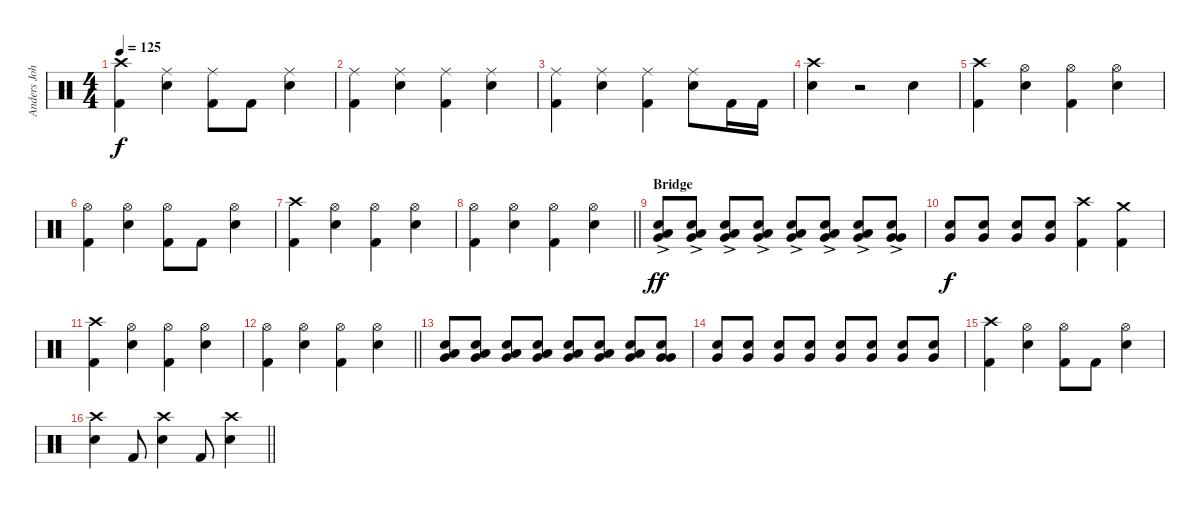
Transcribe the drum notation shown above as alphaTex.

\track ("Anders Johansson" "Anders Joh") {instrument percussion}
\staff {score}
\articulation defaults
\ts (4 4)
\tempo 125
\clef neutral
\ks c
("Kick (hit) 2" "Crash high (hit)").4{dy f} ("Electric Snare (hit)" "Ride (middle)").4 ("Kick (hit) 2" "Ride (middle)").8 "Kick (hit) 2".8 ("Electric Snare (hit)" "Ride (middle)").4 |
("Kick (hit) 2" "Ride (middle)").4 ("Electric Snare (hit)" "Ride (middle)").4 ("Kick (hit) 2" "Ride (middle)").4 ("Electric Snare (hit)" "Ride (middle)").4 |
("Kick (hit) 2" "Ride (middle)").4 ("Electric Snare (hit)" "Ride (middle)").4 ("Kick (hit) 2" "Ride (middle)").4 ("Electric Snare (hit)" "Ride (middle)").8 "Kick (hit) 2".16 "Kick (hit) 2".16 |
("Crash high (hit)" "Electric Snare (hit)").4 r.2 "Electric Snare (hit)".4 |
("Kick (hit) 2" "Crash high (hit)").4 ("Electric Snare (hit)" "Hi-Hat (open)").4 ("Kick (hit) 2" "Hi-Hat (open)").4 ("Electric Snare (hit)" "Hi-Hat (open)").4 |
("Kick (hit) 2" "Hi-Hat (open)").4 ("Electric Snare (hit)" "Hi-Hat (open)").4 ("Kick (hit) 2" "Hi-Hat (open)").8 "Kick (hit) 2".8 ("Hi-Hat (open)" "Electric Snare (hit)").4 |
("Kick (hit) 2" "Crash high (hit)").4 ("Electric Snare (hit)" "Hi-Hat (open)").4 ("Kick (hit) 2" "Hi-Hat (open)").4 ("Electric Snare (hit)" "Hi-Hat (open)").4 |
\barLineRight lightlight
("Kick (hit) 2" "Hi-Hat (open)").4 ("Electric Snare (hit)" "Hi-Hat (open)").4 ("Kick (hit) 2" "Hi-Hat (open)").4 ("Electric Snare (hit)" "Hi-Hat (open)").4 |
\section ("" "Bridge")
("Very Low Tom (hit)" "Snare (hit) 2" "Low Floor Tom (hit)"{ac}).8{dy ff} ("Very Low Tom (hit)" "Snare (hit) 2" "Low Floor Tom (hit)"{ac}).8 ("Very Low Tom (hit)" "Snare (hit) 2" "Low Floor Tom (hit)"{ac}).8 ("Very Low Tom (hit)" "Snare (hit) 2" "Low Floor Tom (hit)"{ac}).8 ("Very Low Tom (hit)" "Snare (hit) 2" "Low Floor Tom (hit)"{ac}).8 ("Very Low Tom (hit)" "Snare (hit) 2" "Low Floor Tom (hit)"{ac}).8 ("Very Low Tom (hit)" "Snare (hit) 2" "Low Floor Tom (hit)"{ac}).8 ("Very Low Tom (hit)" "Snare (hit) 2" "Very Low Tom (hit)"{ac}).8 |
("Snare (hit) 2" "Very Low Tom (hit)").8{dy f} ("Snare (hit) 2" "Very Low Tom (hit)").8 ("Snare (hit) 2" "Very Low Tom (hit)").8 ("Snare (hit) 2" "Very Low Tom (hit)").8 ("Kick (hit) 2" "Crash high (hit)").4 ("Kick (hit) 2" "Crash medium (hit)").4 |
("Kick (hit) 2" "Crash high (hit)").4 ("Electric Snare (hit)" "Hi-Hat (open)").4 ("Kick (hit) 2" "Hi-Hat (open)").4 ("Electric Snare (hit)" "Hi-Hat (open)").4 |
\barLineRight lightlight
("Kick (hit) 2" "Hi-Hat (open)").4 ("Electric Snare (hit)" "Hi-Hat (open)").4 ("Kick (hit) 2" "Hi-Hat (open)").4 ("Electric Snare (hit)" "Hi-Hat (open)").4 |
("Very Low Tom (hit)" "Snare (hit) 2" "Low Floor Tom (hit)").8 ("Very Low Tom (hit)" "Snare (hit) 2" "Low Floor Tom (hit)").8 ("Very Low Tom (hit)" "Snare (hit) 2" "Low Floor Tom (hit)").8 ("Very Low Tom (hit)" "Snare (hit) 2" "Low Floor Tom (hit)").8 ("Very Low Tom (hit)" "Snare (hit) 2" "Low Floor Tom (hit)").8 ("Very Low Tom (hit)" "Snare (hit) 2" "Low Floor Tom (hit)").8 ("Very Low Tom (hit)" "Snare (hit) 2" "Low Floor Tom (hit)").8 ("Very Low Tom (hit)" "Snare (hit) 2" "Very Low Tom (hit)").8 |
("Snare (hit) 2" "Very Low Tom (hit)").8 ("Snare (hit) 2" "Very Low Tom (hit)").8 ("Snare (hit) 2" "Very Low Tom (hit)").8 ("Snare (hit) 2" "Very Low Tom (hit)").8 ("Snare (hit) 2" "Very Low Tom (hit)").8 ("Snare (hit) 2" "Very Low Tom (hit)").8 ("Snare (hit) 2" "Very Low Tom (hit)").8 ("Snare (hit) 2" "Very Low Tom (hit)").8 |
("Kick (hit) 2" "Crash high (hit)").4 ("Electric Snare (hit)" "Hi-Hat (open)").4 ("Kick (hit) 2" "Hi-Hat (open)").8 "Kick (hit) 2".8 ("Hi-Hat (open)" "Electric Snare (hit)").4 |
\barLineRight lightlight
("Electric Snare (hit)" "Crash high (hit)").4 "Kick (hit) 2".8 ("Electric Snare (hit)" "Crash high (hit)").4 "Kick (hit) 2".8 ("Crash high (hit)" "Electric Snare (hit)").4
